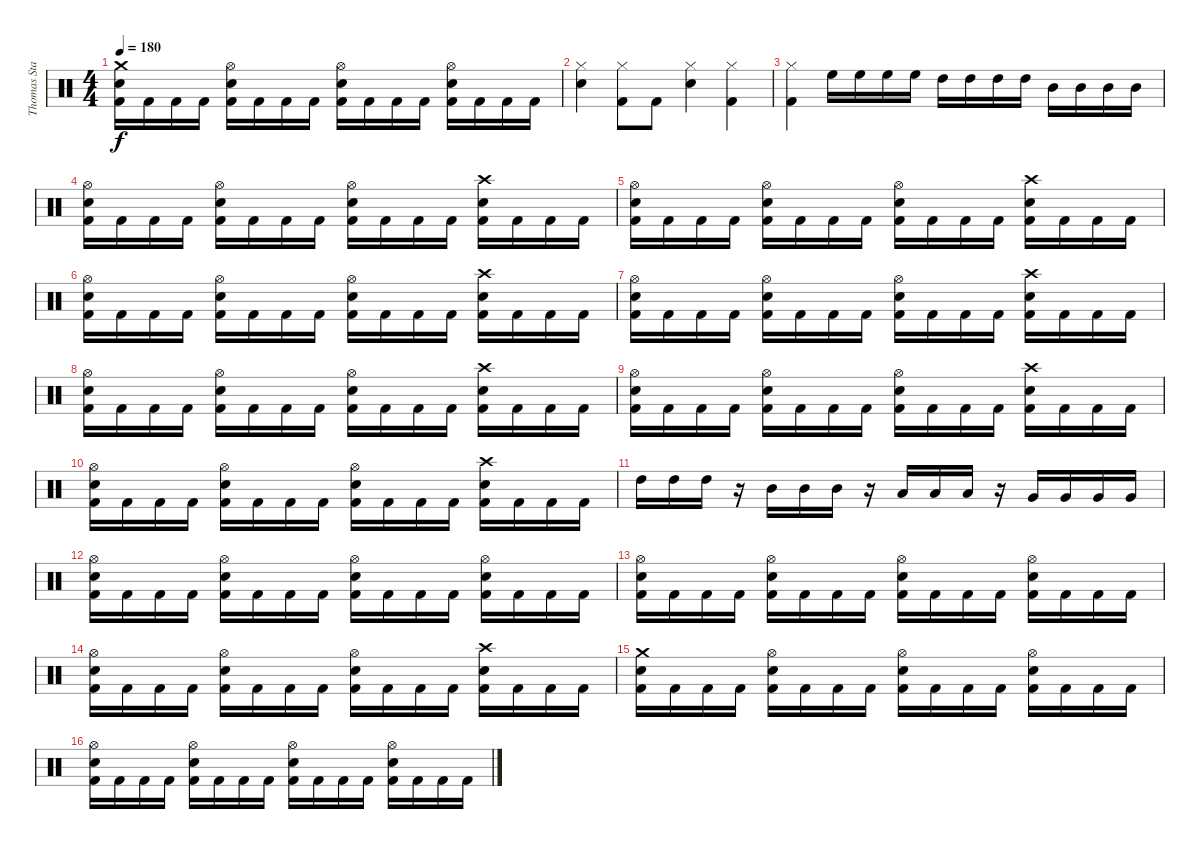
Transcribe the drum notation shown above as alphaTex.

\track ("Thomas Stauch" "Thomas Sta") {instrument percussion}
\staff {score}
\articulation defaults
\ts (4 4)
\tempo 180
\clef neutral
\ks c
("Crash medium (hit)" "Electric Snare (hit)" "Kick (hit) 2").16{dy f} "Kick (hit) 2".16 "Kick (hit) 2".16 "Kick (hit) 2".16 ("Hi-Hat (open)" "Electric Snare (hit)" "Kick (hit) 2").16 "Kick (hit) 2".16 "Kick (hit) 2".16 "Kick (hit) 2".16 ("Hi-Hat (open)" "Electric Snare (hit)" "Kick (hit) 2").16 "Kick (hit) 2".16 "Kick (hit) 2".16 "Kick (hit) 2".16 ("Hi-Hat (open)" "Electric Snare (hit)" "Kick (hit) 2").16 "Kick (hit) 2".16 "Kick (hit) 2".16 "Kick (hit) 2".16 |
("Hi-Hat (closed)" "Electric Snare (hit)").4 ("Hi-Hat (closed)" "Kick (hit) 2").8 "Kick (hit) 2".8 ("Hi-Hat (closed)" "Electric Snare (hit)").4 ("Hi-Hat (closed)" "Kick (hit) 2").4 |
("Hi-Hat (closed)" "Kick (hit) 2").4 "High Floor Tom (hit)".16 "High Floor Tom (hit)".16 "High Floor Tom (hit)".16 "High Floor Tom (hit)".16 "High Tom (hit)".16 "High Tom (hit)".16 "High Tom (hit)".16 "High Tom (hit)".16 "Mid Tom (hit)".16 "Mid Tom (hit)".16 "Mid Tom (hit)".16 "Mid Tom (hit)".16 |
("Hi-Hat (open)" "Electric Snare (hit)" "Kick (hit) 2").16 "Kick (hit) 2".16 "Kick (hit) 2".16 "Kick (hit) 2".16 ("Hi-Hat (open)" "Electric Snare (hit)" "Kick (hit) 2").16 "Kick (hit) 2".16 "Kick (hit) 2".16 "Kick (hit) 2".16 ("Hi-Hat (open)" "Electric Snare (hit)" "Kick (hit) 2").16 "Kick (hit) 2".16 "Kick (hit) 2".16 "Kick (hit) 2".16 ("Crash high (hit)" "Electric Snare (hit)" "Kick (hit) 2").16 "Kick (hit) 2".16 "Kick (hit) 2".16 "Kick (hit) 2".16 |
("Hi-Hat (open)" "Electric Snare (hit)" "Kick (hit) 2").16 "Kick (hit) 2".16 "Kick (hit) 2".16 "Kick (hit) 2".16 ("Hi-Hat (open)" "Electric Snare (hit)" "Kick (hit) 2").16 "Kick (hit) 2".16 "Kick (hit) 2".16 "Kick (hit) 2".16 ("Hi-Hat (open)" "Electric Snare (hit)" "Kick (hit) 2").16 "Kick (hit) 2".16 "Kick (hit) 2".16 "Kick (hit) 2".16 ("Crash high (hit)" "Electric Snare (hit)" "Kick (hit) 2").16 "Kick (hit) 2".16 "Kick (hit) 2".16 "Kick (hit) 2".16 |
("Hi-Hat (open)" "Electric Snare (hit)" "Kick (hit) 2").16 "Kick (hit) 2".16 "Kick (hit) 2".16 "Kick (hit) 2".16 ("Hi-Hat (open)" "Electric Snare (hit)" "Kick (hit) 2").16 "Kick (hit) 2".16 "Kick (hit) 2".16 "Kick (hit) 2".16 ("Hi-Hat (open)" "Electric Snare (hit)" "Kick (hit) 2").16 "Kick (hit) 2".16 "Kick (hit) 2".16 "Kick (hit) 2".16 ("Crash high (hit)" "Electric Snare (hit)" "Kick (hit) 2").16 "Kick (hit) 2".16 "Kick (hit) 2".16 "Kick (hit) 2".16 |
("Hi-Hat (open)" "Electric Snare (hit)" "Kick (hit) 2").16 "Kick (hit) 2".16 "Kick (hit) 2".16 "Kick (hit) 2".16 ("Hi-Hat (open)" "Electric Snare (hit)" "Kick (hit) 2").16 "Kick (hit) 2".16 "Kick (hit) 2".16 "Kick (hit) 2".16 ("Hi-Hat (open)" "Electric Snare (hit)" "Kick (hit) 2").16 "Kick (hit) 2".16 "Kick (hit) 2".16 "Kick (hit) 2".16 ("Crash high (hit)" "Electric Snare (hit)" "Kick (hit) 2").16 "Kick (hit) 2".16 "Kick (hit) 2".16 "Kick (hit) 2".16 |
("Hi-Hat (open)" "Electric Snare (hit)" "Kick (hit) 2").16 "Kick (hit) 2".16 "Kick (hit) 2".16 "Kick (hit) 2".16 ("Hi-Hat (open)" "Electric Snare (hit)" "Kick (hit) 2").16 "Kick (hit) 2".16 "Kick (hit) 2".16 "Kick (hit) 2".16 ("Hi-Hat (open)" "Electric Snare (hit)" "Kick (hit) 2").16 "Kick (hit) 2".16 "Kick (hit) 2".16 "Kick (hit) 2".16 ("Crash high (hit)" "Electric Snare (hit)" "Kick (hit) 2").16 "Kick (hit) 2".16 "Kick (hit) 2".16 "Kick (hit) 2".16 |
("Hi-Hat (open)" "Electric Snare (hit)" "Kick (hit) 2").16 "Kick (hit) 2".16 "Kick (hit) 2".16 "Kick (hit) 2".16 ("Hi-Hat (open)" "Electric Snare (hit)" "Kick (hit) 2").16 "Kick (hit) 2".16 "Kick (hit) 2".16 "Kick (hit) 2".16 ("Hi-Hat (open)" "Electric Snare (hit)" "Kick (hit) 2").16 "Kick (hit) 2".16 "Kick (hit) 2".16 "Kick (hit) 2".16 ("Crash high (hit)" "Electric Snare (hit)" "Kick (hit) 2").16 "Kick (hit) 2".16 "Kick (hit) 2".16 "Kick (hit) 2".16 |
("Hi-Hat (open)" "Electric Snare (hit)" "Kick (hit) 2").16 "Kick (hit) 2".16 "Kick (hit) 2".16 "Kick (hit) 2".16 ("Hi-Hat (open)" "Electric Snare (hit)" "Kick (hit) 2").16 "Kick (hit) 2".16 "Kick (hit) 2".16 "Kick (hit) 2".16 ("Hi-Hat (open)" "Electric Snare (hit)" "Kick (hit) 2").16 "Kick (hit) 2".16 "Kick (hit) 2".16 "Kick (hit) 2".16 ("Crash high (hit)" "Electric Snare (hit)" "Kick (hit) 2").16 "Kick (hit) 2".16 "Kick (hit) 2".16 "Kick (hit) 2".16 |
"High Tom (hit)".16 "High Tom (hit)".16 "High Tom (hit)".16 r.16 "Mid Tom (hit)".16 "Mid Tom (hit)".16 "Mid Tom (hit)".16 r.16 "Low Tom (hit)".16 "Low Tom (hit)".16 "Low Tom (hit)".16 r.16 "Very Low Tom (hit)".16 "Very Low Tom (hit)".16 "Very Low Tom (hit)".16 "Very Low Tom (hit)".16 |
("Hi-Hat (open)" "Electric Snare (hit)" "Kick (hit) 2").16 "Kick (hit) 2".16 "Kick (hit) 2".16 "Kick (hit) 2".16 ("Hi-Hat (open)" "Electric Snare (hit)" "Kick (hit) 2").16 "Kick (hit) 2".16 "Kick (hit) 2".16 "Kick (hit) 2".16 ("Hi-Hat (open)" "Electric Snare (hit)" "Kick (hit) 2").16 "Kick (hit) 2".16 "Kick (hit) 2".16 "Kick (hit) 2".16 ("Hi-Hat (open)" "Electric Snare (hit)" "Kick (hit) 2").16 "Kick (hit) 2".16 "Kick (hit) 2".16 "Kick (hit) 2".16 |
("Hi-Hat (open)" "Electric Snare (hit)" "Kick (hit) 2").16 "Kick (hit) 2".16 "Kick (hit) 2".16 "Kick (hit) 2".16 ("Hi-Hat (open)" "Electric Snare (hit)" "Kick (hit) 2").16 "Kick (hit) 2".16 "Kick (hit) 2".16 "Kick (hit) 2".16 ("Hi-Hat (open)" "Electric Snare (hit)" "Kick (hit) 2").16 "Kick (hit) 2".16 "Kick (hit) 2".16 "Kick (hit) 2".16 ("Hi-Hat (open)" "Electric Snare (hit)" "Kick (hit) 2").16 "Kick (hit) 2".16 "Kick (hit) 2".16 "Kick (hit) 2".16 |
("Hi-Hat (open)" "Electric Snare (hit)" "Kick (hit) 2").16 "Kick (hit) 2".16 "Kick (hit) 2".16 "Kick (hit) 2".16 ("Hi-Hat (open)" "Electric Snare (hit)" "Kick (hit) 2").16 "Kick (hit) 2".16 "Kick (hit) 2".16 "Kick (hit) 2".16 ("Hi-Hat (open)" "Electric Snare (hit)" "Kick (hit) 2").16 "Kick (hit) 2".16 "Kick (hit) 2".16 "Kick (hit) 2".16 ("Crash high (hit)" "Electric Snare (hit)" "Kick (hit) 2").16 "Kick (hit) 2".16 "Kick (hit) 2".16 "Kick (hit) 2".16 |
("Crash medium (hit)" "Electric Snare (hit)" "Kick (hit) 2").16 "Kick (hit) 2".16 "Kick (hit) 2".16 "Kick (hit) 2".16 ("Hi-Hat (open)" "Electric Snare (hit)" "Kick (hit) 2").16 "Kick (hit) 2".16 "Kick (hit) 2".16 "Kick (hit) 2".16 ("Hi-Hat (open)" "Electric Snare (hit)" "Kick (hit) 2").16 "Kick (hit) 2".16 "Kick (hit) 2".16 "Kick (hit) 2".16 ("Hi-Hat (open)" "Electric Snare (hit)" "Kick (hit) 2").16 "Kick (hit) 2".16 "Kick (hit) 2".16 "Kick (hit) 2".16 |
("Hi-Hat (open)" "Electric Snare (hit)" "Kick (hit) 2").16 "Kick (hit) 2".16 "Kick (hit) 2".16 "Kick (hit) 2".16 ("Hi-Hat (open)" "Electric Snare (hit)" "Kick (hit) 2").16 "Kick (hit) 2".16 "Kick (hit) 2".16 "Kick (hit) 2".16 ("Hi-Hat (open)" "Electric Snare (hit)" "Kick (hit) 2").16 "Kick (hit) 2".16 "Kick (hit) 2".16 "Kick (hit) 2".16 ("Hi-Hat (open)" "Electric Snare (hit)" "Kick (hit) 2").16 "Kick (hit) 2".16 "Kick (hit) 2".16 "Kick (hit) 2".16
